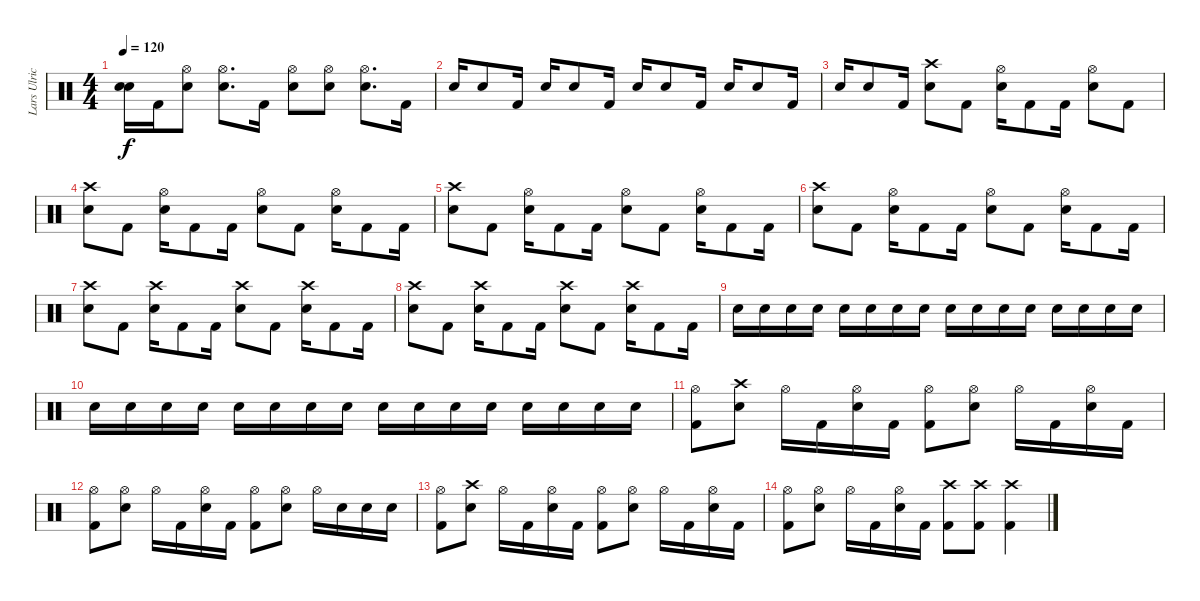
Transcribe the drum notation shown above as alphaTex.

\track ("Lars Ulrich" "Lars Ulric") {instrument percussion}
\staff {score}
\articulation defaults
\ts (4 4)
\tempo 120
\clef neutral
\ks c
("Snare (hit)"{t} "Snare (hit)"{t}).16{dy f} "Kick (hit) 2".16 ("Hi-Hat (open)" "Electric Snare (hit)").8 ("Hi-Hat (open)" "Electric Snare (hit)").8{d} "Kick (hit) 2".16 ("Hi-Hat (open)" "Electric Snare (hit)").8 ("Hi-Hat (open)" "Electric Snare (hit)").8 ("Hi-Hat (open)" "Electric Snare (hit)").8{d} "Kick (hit) 2".16 |
"Electric Snare (hit)".16 "Electric Snare (hit)".8 "Kick (hit) 2".16 "Electric Snare (hit)".16 "Electric Snare (hit)".8 "Kick (hit) 2".16 "Electric Snare (hit)".16 "Electric Snare (hit)".8 "Kick (hit) 2".16 "Electric Snare (hit)".16 "Electric Snare (hit)".8 "Kick (hit) 2".16 |
"Electric Snare (hit)".16 "Electric Snare (hit)".8 "Kick (hit) 2".16 ("Crash high (hit)" "Electric Snare (hit)").8 "Kick (hit) 2".8 ("Hi-Hat (open)" "Electric Snare (hit)").16 "Kick (hit) 2".8 "Kick (hit) 2".16 ("Hi-Hat (open)" "Electric Snare (hit)").8 "Kick (hit) 2".8 |
("Crash high (hit)" "Electric Snare (hit)").8 "Kick (hit) 2".8 ("Hi-Hat (open)" "Electric Snare (hit)").16 "Kick (hit) 2".8 "Kick (hit) 2".16 ("Hi-Hat (open)" "Electric Snare (hit)").8 "Kick (hit) 2".8 ("Hi-Hat (open)" "Electric Snare (hit)").16 "Kick (hit) 2".8 "Kick (hit) 2".16 |
("Crash high (hit)" "Electric Snare (hit)").8 "Kick (hit) 2".8 ("Hi-Hat (open)" "Electric Snare (hit)").16 "Kick (hit) 2".8 "Kick (hit) 2".16 ("Hi-Hat (open)" "Electric Snare (hit)").8 "Kick (hit) 2".8 ("Hi-Hat (open)" "Electric Snare (hit)").16 "Kick (hit) 2".8 "Kick (hit) 2".16 |
("Crash high (hit)" "Electric Snare (hit)").8 "Kick (hit) 2".8 ("Hi-Hat (open)" "Electric Snare (hit)").16 "Kick (hit) 2".8 "Kick (hit) 2".16 ("Hi-Hat (open)" "Electric Snare (hit)").8 "Kick (hit) 2".8 ("Hi-Hat (open)" "Electric Snare (hit)").16 "Kick (hit) 2".8 "Kick (hit) 2".16 |
("Crash high (hit)" "Electric Snare (hit)").8 "Kick (hit) 2".8 ("Crash high (hit)" "Electric Snare (hit)").16 "Kick (hit) 2".8 "Kick (hit) 2".16 ("Crash high (hit)" "Electric Snare (hit)").8 "Kick (hit) 2".8 ("Crash high (hit)" "Electric Snare (hit)").16 "Kick (hit) 2".8 "Kick (hit) 2".16 |
("Crash high (hit)" "Electric Snare (hit)").8 "Kick (hit) 2".8 ("Crash high (hit)" "Electric Snare (hit)").16 "Kick (hit) 2".8 "Kick (hit) 2".16 ("Crash high (hit)" "Electric Snare (hit)").8 "Kick (hit) 2".8 ("Crash high (hit)" "Electric Snare (hit)").16 "Kick (hit) 2".8 "Kick (hit) 2".16 |
"Electric Snare (hit)".16 "Electric Snare (hit)".16 "Electric Snare (hit)".16 "Electric Snare (hit)".16 "Electric Snare (hit)".16 "Electric Snare (hit)".16 "Electric Snare (hit)".16 "Electric Snare (hit)".16 "Electric Snare (hit)".16 "Electric Snare (hit)".16 "Electric Snare (hit)".16 "Electric Snare (hit)".16 "Electric Snare (hit)".16 "Electric Snare (hit)".16 "Electric Snare (hit)".16 "Electric Snare (hit)".16 |
"Electric Snare (hit)".16 "Electric Snare (hit)".16 "Electric Snare (hit)".16 "Electric Snare (hit)".16 "Electric Snare (hit)".16 "Electric Snare (hit)".16 "Electric Snare (hit)".16 "Electric Snare (hit)".16 "Electric Snare (hit)".16 "Electric Snare (hit)".16 "Electric Snare (hit)".16 "Electric Snare (hit)".16 "Electric Snare (hit)".16 "Electric Snare (hit)".16 "Electric Snare (hit)".16 "Electric Snare (hit)".16 |
("Hi-Hat (open)" "Kick (hit) 2").8 ("Crash high (hit)" "Electric Snare (hit)").8 "Hi-Hat (open)".16 "Kick (hit) 2".16 ("Hi-Hat (open)" "Electric Snare (hit)").16 "Kick (hit) 2".16 ("Hi-Hat (open)" "Kick (hit) 2").8 ("Hi-Hat (open)" "Electric Snare (hit)").8 "Hi-Hat (open)".16 "Kick (hit) 2".16 ("Hi-Hat (open)" "Electric Snare (hit)").16 "Kick (hit) 2".16 |
("Hi-Hat (open)" "Kick (hit) 2").8 ("Hi-Hat (open)" "Electric Snare (hit)").8 "Hi-Hat (open)".16 "Kick (hit) 2".16 ("Hi-Hat (open)" "Electric Snare (hit)").16 "Kick (hit) 2".16 ("Hi-Hat (open)" "Kick (hit) 2").8 ("Hi-Hat (open)" "Electric Snare (hit)").8 "Hi-Hat (open)".16 "Electric Snare (hit)".16 "Electric Snare (hit)".16 "Electric Snare (hit)".16 |
("Hi-Hat (open)" "Kick (hit) 2").8 ("Crash high (hit)" "Electric Snare (hit)").8 "Hi-Hat (open)".16 "Kick (hit) 2".16 ("Hi-Hat (open)" "Electric Snare (hit)").16 "Kick (hit) 2".16 ("Hi-Hat (open)" "Kick (hit) 2").8 ("Hi-Hat (open)" "Electric Snare (hit)").8 "Hi-Hat (open)".16 "Kick (hit) 2".16 ("Hi-Hat (open)" "Electric Snare (hit)").16 "Kick (hit) 2".16 |
("Hi-Hat (open)" "Kick (hit) 2").8 ("Hi-Hat (open)" "Electric Snare (hit)").8 "Hi-Hat (open)".16 "Kick (hit) 2".16 ("Hi-Hat (open)" "Electric Snare (hit)").16 "Kick (hit) 2".16 ("Crash high (hit)" "Kick (hit) 2").8 ("Crash high (hit)" "Kick (hit) 2").8 ("Crash high (hit)" "Kick (hit) 2").4
